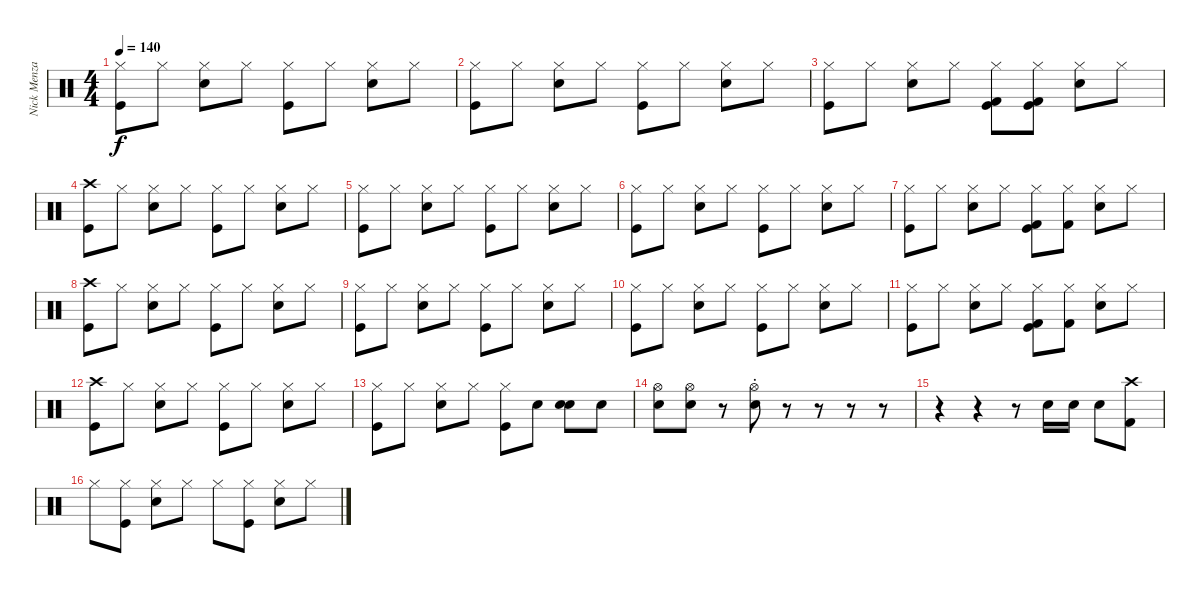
\track ("Nick Menza (Drums)" "Nick Menza") {instrument percussion}
\staff {score}
\articulation defaults
\ts (4 4)
\tempo 140
\clef neutral
\ks c
("Hi-Hat (closed)" "Kick (hit)").8{dy f} "Hi-Hat (closed)".8 ("Hi-Hat (closed)" "Snare (hit) 2").8 "Hi-Hat (closed)".8 ("Hi-Hat (closed)" "Kick (hit)").8 "Hi-Hat (closed)".8 ("Hi-Hat (closed)" "Snare (hit) 2").8 "Hi-Hat (closed)".8 |
("Hi-Hat (closed)" "Kick (hit)").8 "Hi-Hat (closed)".8 ("Hi-Hat (closed)" "Snare (hit) 2").8 "Hi-Hat (closed)".8 ("Hi-Hat (closed)" "Kick (hit)").8 "Hi-Hat (closed)".8 ("Hi-Hat (closed)" "Snare (hit) 2").8 "Hi-Hat (closed)".8 |
("Hi-Hat (closed)" "Kick (hit)").8 "Hi-Hat (closed)".8 ("Hi-Hat (closed)" "Snare (hit) 2").8 "Hi-Hat (closed)".8 ("Hi-Hat (closed)" "Kick (hit) 2" "Kick (hit)").8 ("Hi-Hat (closed)" "Kick (hit) 2" "Kick (hit)").8 ("Hi-Hat (closed)" "Snare (hit) 2").8 "Hi-Hat (closed)".8 |
("Crash high (hit)" "Kick (hit)").8 "Hi-Hat (closed)".8 ("Hi-Hat (closed)" "Snare (hit) 2").8 "Hi-Hat (closed)".8 ("Hi-Hat (closed)" "Kick (hit)").8 "Hi-Hat (closed)".8 ("Hi-Hat (closed)" "Snare (hit) 2").8 "Hi-Hat (closed)".8 |
("Hi-Hat (closed)" "Kick (hit)").8 "Hi-Hat (closed)".8 ("Hi-Hat (closed)" "Snare (hit) 2").8 "Hi-Hat (closed)".8 ("Hi-Hat (closed)" "Kick (hit)").8 "Hi-Hat (closed)".8 ("Hi-Hat (closed)" "Snare (hit) 2").8 "Hi-Hat (closed)".8 |
("Hi-Hat (closed)" "Kick (hit)").8 "Hi-Hat (closed)".8 ("Hi-Hat (closed)" "Snare (hit) 2").8 "Hi-Hat (closed)".8 ("Hi-Hat (closed)" "Kick (hit)").8 "Hi-Hat (closed)".8 ("Hi-Hat (closed)" "Snare (hit) 2").8 "Hi-Hat (closed)".8 |
("Hi-Hat (closed)" "Kick (hit)").8 "Hi-Hat (closed)".8 ("Hi-Hat (closed)" "Snare (hit) 2").8 "Hi-Hat (closed)".8 ("Hi-Hat (closed)" "Kick (hit) 2" "Kick (hit)").8 ("Hi-Hat (closed)" "Kick (hit) 2").8 ("Hi-Hat (closed)" "Snare (hit) 2").8 "Hi-Hat (closed)".8 |
("Crash high (hit)" "Kick (hit)").8 "Hi-Hat (closed)".8 ("Hi-Hat (closed)" "Snare (hit) 2").8 "Hi-Hat (closed)".8 ("Hi-Hat (closed)" "Kick (hit)").8 "Hi-Hat (closed)".8 ("Hi-Hat (closed)" "Snare (hit) 2").8 "Hi-Hat (closed)".8 |
("Hi-Hat (closed)" "Kick (hit)").8 "Hi-Hat (closed)".8 ("Hi-Hat (closed)" "Snare (hit) 2").8 "Hi-Hat (closed)".8 ("Hi-Hat (closed)" "Kick (hit)").8 "Hi-Hat (closed)".8 ("Hi-Hat (closed)" "Snare (hit) 2").8 "Hi-Hat (closed)".8 |
("Hi-Hat (closed)" "Kick (hit)").8 "Hi-Hat (closed)".8 ("Hi-Hat (closed)" "Snare (hit) 2").8 "Hi-Hat (closed)".8 ("Hi-Hat (closed)" "Kick (hit)").8 "Hi-Hat (closed)".8 ("Hi-Hat (closed)" "Snare (hit) 2").8 "Hi-Hat (closed)".8 |
("Hi-Hat (closed)" "Kick (hit)").8 "Hi-Hat (closed)".8 ("Hi-Hat (closed)" "Snare (hit) 2").8 "Hi-Hat (closed)".8 ("Hi-Hat (closed)" "Kick (hit) 2" "Kick (hit)").8 ("Hi-Hat (closed)" "Kick (hit) 2").8 ("Hi-Hat (closed)" "Snare (hit) 2").8 "Hi-Hat (closed)".8 |
("Crash high (hit)" "Kick (hit)").8 "Hi-Hat (closed)".8 ("Hi-Hat (closed)" "Snare (hit) 2").8 "Hi-Hat (closed)".8 ("Hi-Hat (closed)" "Kick (hit)").8 "Hi-Hat (closed)".8 ("Hi-Hat (closed)" "Snare (hit) 2").8 "Hi-Hat (closed)".8 |
("Hi-Hat (closed)" "Kick (hit)").8 "Hi-Hat (closed)".8 ("Hi-Hat (closed)" "Snare (hit) 2").8 "Hi-Hat (closed)".8 ("Hi-Hat (closed)" "Kick (hit)").8 "Electric Snare (hit)".8 ("Electric Snare (hit)" "Snare (hit) 2").8 "Electric Snare (hit)".8 |
("Hi-Hat (open)" "Electric Snare (hit)").8 ("Hi-Hat (open)" "Electric Snare (hit)").8 r.8 ("Hi-Hat (open)"{st} "Electric Snare (hit)").8 r.8 r.8 r.8 r.8 |
r.4 r.4 r.8 "Electric Snare (hit)".16 "Electric Snare (hit)".16 "Electric Snare (hit)".8 ("Kick (hit) 2" "Crash high (hit)").8 |
"Hi-Hat (closed)".8 ("Hi-Hat (closed)" "Kick (hit)").8 ("Hi-Hat (closed)" "Snare (hit) 2").8 "Hi-Hat (closed)".8 "Hi-Hat (closed)".8 ("Hi-Hat (closed)" "Kick (hit)").8 ("Hi-Hat (closed)" "Snare (hit) 2").8 "Hi-Hat (closed)".8
